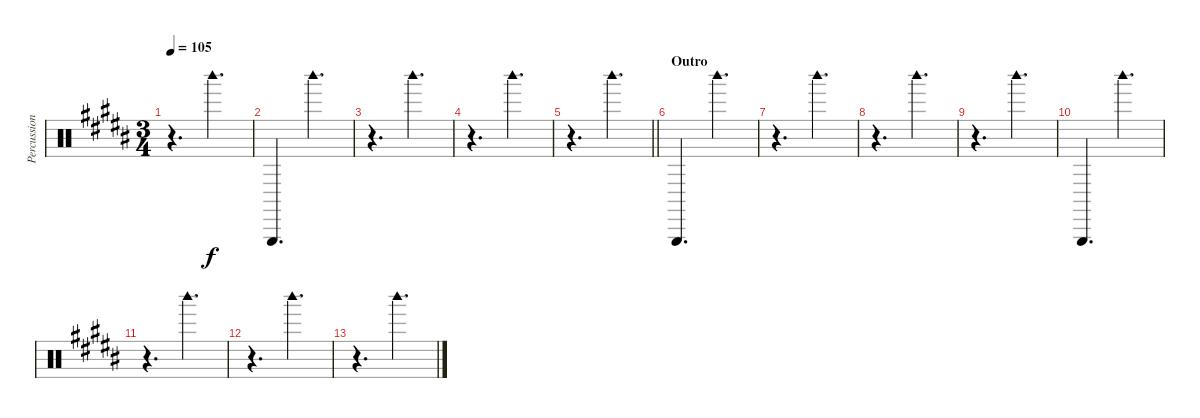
\track ("Percussion" "Percussion") {instrument percussion}
\staff {score}
\articulation defaults
\ts (3 4)
\tempo 105
\clef neutral
\ks b
r.4{d dy f} "Woodblock high (hit)".4{d} |
"Triangle (hit)".4{d} "Woodblock high (hit)".4{d} |
r.4{d} "Woodblock high (hit)".4{d} |
r.4{d} "Woodblock high (hit)".4{d} |
\barLineRight lightlight
r.4{d} "Woodblock high (hit)".4{d} |
\section ("" "Outro")
"Triangle (hit)".4{d} "Woodblock high (hit)".4{d} |
r.4{d} "Woodblock high (hit)".4{d} |
r.4{d} "Woodblock high (hit)".4{d} |
r.4{d} "Woodblock high (hit)".4{d} |
"Triangle (hit)".4{d} "Woodblock high (hit)".4{d} |
r.4{d} "Woodblock high (hit)".4{d} |
r.4{d} "Woodblock high (hit)".4{d} |
r.4{d} "Woodblock high (hit)".4{d}
